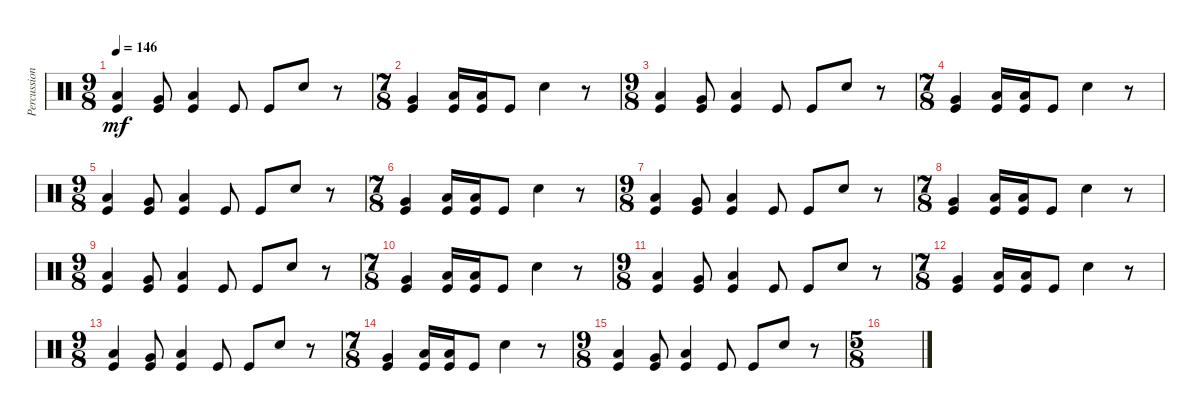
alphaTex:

\track ("Percussion" "Percussion") {instrument percussion}
\staff {score}
\articulation defaults
\ts (9 8)
\tempo 146
\clef neutral
\ks c
("Low Tom (hit)" "Kick (hit)").4{dy mf} ("Very Low Tom (hit)" "Kick (hit)").8 ("Low Floor Tom (hit)" "Kick (hit)").4 "Kick (hit)".8 "Kick (hit)".8 "Snare (hit) 2".8 r.8 |
\ts (7 8)
("Very Low Tom (hit)" "Kick (hit)").4 ("Low Floor Tom (hit)" "Kick (hit)").16 ("Low Floor Tom (hit)" "Kick (hit)").16 "Kick (hit)".8 "Snare (hit) 2".4 r.8 |
\ts (9 8)
("Low Tom (hit)" "Kick (hit)").4 ("Very Low Tom (hit)" "Kick (hit)").8 ("Low Floor Tom (hit)" "Kick (hit)").4 "Kick (hit)".8 "Kick (hit)".8 "Snare (hit) 2".8 r.8 |
\ts (7 8)
("Very Low Tom (hit)" "Kick (hit)").4 ("Low Floor Tom (hit)" "Kick (hit)").16 ("Low Floor Tom (hit)" "Kick (hit)").16 "Kick (hit)".8 "Snare (hit) 2".4 r.8 |
\ts (9 8)
("Low Tom (hit)" "Kick (hit)").4 ("Very Low Tom (hit)" "Kick (hit)").8 ("Low Floor Tom (hit)" "Kick (hit)").4 "Kick (hit)".8 "Kick (hit)".8 "Snare (hit) 2".8 r.8 |
\ts (7 8)
("Very Low Tom (hit)" "Kick (hit)").4 ("Low Floor Tom (hit)" "Kick (hit)").16 ("Low Floor Tom (hit)" "Kick (hit)").16 "Kick (hit)".8 "Snare (hit) 2".4 r.8 |
\ts (9 8)
("Low Tom (hit)" "Kick (hit)").4 ("Very Low Tom (hit)" "Kick (hit)").8 ("Low Floor Tom (hit)" "Kick (hit)").4 "Kick (hit)".8 "Kick (hit)".8 "Snare (hit) 2".8 r.8 |
\ts (7 8)
("Very Low Tom (hit)" "Kick (hit)").4 ("Low Floor Tom (hit)" "Kick (hit)").16 ("Low Floor Tom (hit)" "Kick (hit)").16 "Kick (hit)".8 "Snare (hit) 2".4 r.8 |
\ts (9 8)
("Low Tom (hit)" "Kick (hit)").4 ("Very Low Tom (hit)" "Kick (hit)").8 ("Low Floor Tom (hit)" "Kick (hit)").4 "Kick (hit)".8 "Kick (hit)".8 "Snare (hit) 2".8 r.8 |
\ts (7 8)
("Very Low Tom (hit)" "Kick (hit)").4 ("Low Floor Tom (hit)" "Kick (hit)").16 ("Low Floor Tom (hit)" "Kick (hit)").16 "Kick (hit)".8 "Snare (hit) 2".4 r.8 |
\ts (9 8)
("Low Tom (hit)" "Kick (hit)").4 ("Very Low Tom (hit)" "Kick (hit)").8 ("Low Floor Tom (hit)" "Kick (hit)").4 "Kick (hit)".8 "Kick (hit)".8 "Snare (hit) 2".8 r.8 |
\ts (7 8)
("Very Low Tom (hit)" "Kick (hit)").4 ("Low Floor Tom (hit)" "Kick (hit)").16 ("Low Floor Tom (hit)" "Kick (hit)").16 "Kick (hit)".8 "Snare (hit) 2".4 r.8 |
\ts (9 8)
("Low Tom (hit)" "Kick (hit)").4 ("Very Low Tom (hit)" "Kick (hit)").8 ("Low Floor Tom (hit)" "Kick (hit)").4 "Kick (hit)".8 "Kick (hit)".8 "Snare (hit) 2".8 r.8 |
\ts (7 8)
("Very Low Tom (hit)" "Kick (hit)").4 ("Low Floor Tom (hit)" "Kick (hit)").16 ("Low Floor Tom (hit)" "Kick (hit)").16 "Kick (hit)".8 "Snare (hit) 2".4 r.8 |
\ts (9 8)
("Low Tom (hit)" "Kick (hit)").4 ("Very Low Tom (hit)" "Kick (hit)").8 ("Low Floor Tom (hit)" "Kick (hit)").4 "Kick (hit)".8 "Kick (hit)".8 "Snare (hit) 2".8 r.8 |
\ts (5 8)
